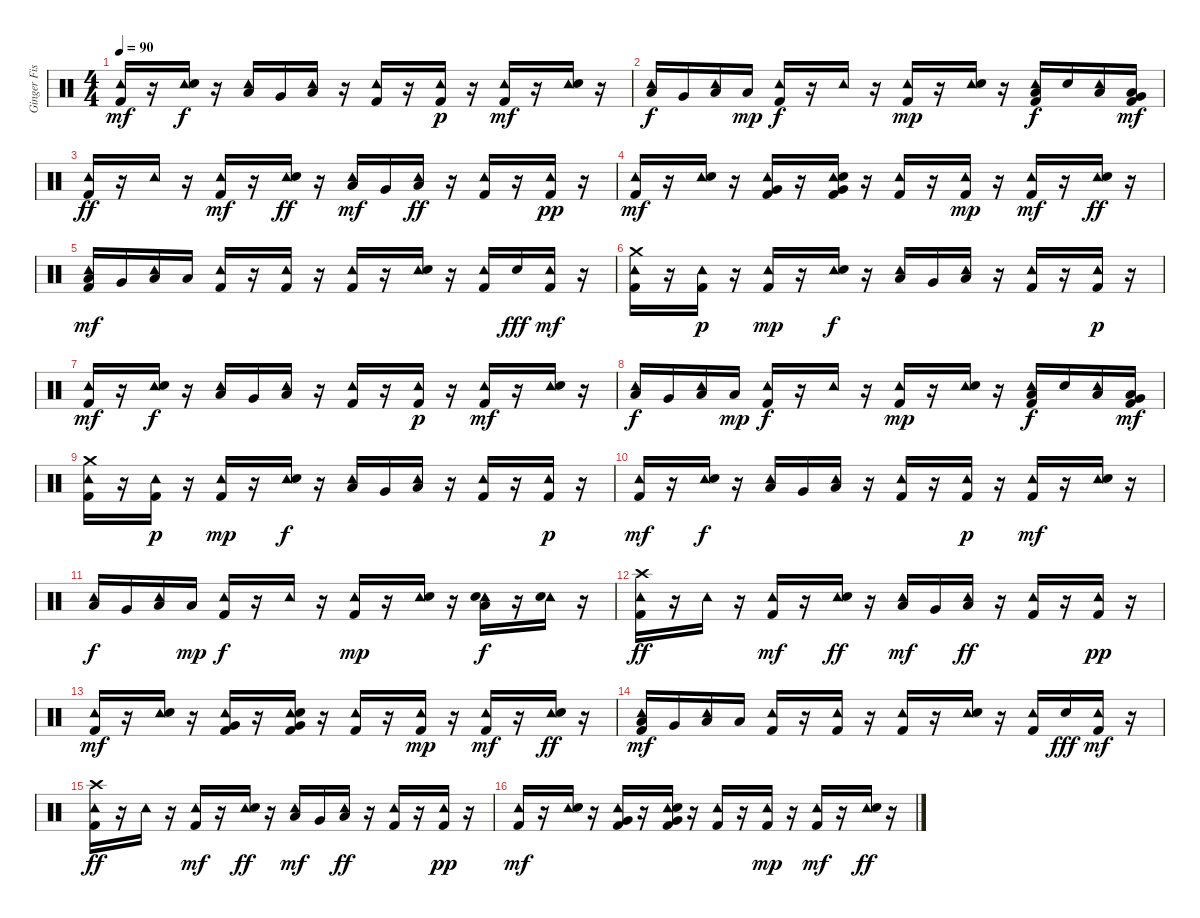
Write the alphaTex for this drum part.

\track ("Ginger Fish" "Ginger Fis") {instrument percussion}
\staff {score}
\articulation defaults
\ts (4 4)
\tempo 90
\clef neutral
\ks c
("Tambourine (hit)" "Kick (hit) 2").16{dy mf} r.16 ("Tambourine (hit)" "Electric Snare (hit)").16{dy f} r.16 ("Tambourine (hit)" "Low Floor Tom (hit)").16 "Very Low Tom (hit)".16 ("Tambourine (hit)" "Low Floor Tom (hit)").16 r.16 ("Tambourine (hit)" "Kick (hit) 2").16 r.16 ("Tambourine (hit)" "Kick (hit) 2").16{dy p} r.16 ("Tambourine (hit)" "Kick (hit) 2").16{dy mf} r.16 ("Tambourine (hit)" "Electric Snare (hit)").16 r.16 |
("Tambourine (hit)" "Low Floor Tom (hit)").16{dy f} "Very Low Tom (hit)".16 ("Tambourine (hit)" "Low Floor Tom (hit)").16 "Low Tom (hit)".16{dy mp} ("Tambourine (hit)" "Kick (hit) 2").16{dy f} r.16 "Tambourine (hit)".16 r.16 ("Tambourine (hit)" "Kick (hit) 2").16{dy mp} r.16 ("Tambourine (hit)" "Electric Snare (hit)").16 r.16 ("Tambourine (hit)" "Kick (hit) 2" "Low Floor Tom (hit)").16{dy f} "Electric Snare (hit)".16 ("Tambourine (hit)" "Low Floor Tom (hit)").16 ("Kick (hit) 2" "Low Tom (hit)" "Very Low Tom (hit)").16{dy mf} |
("Tambourine (hit)" "Kick (hit) 2").16{dy ff} r.16 "Tambourine (hit)".16 r.16 ("Tambourine (hit)" "Kick (hit) 2").16{dy mf} r.16 ("Tambourine (hit)" "Electric Snare (hit)").16{dy ff} r.16 ("Tambourine (hit)" "Low Floor Tom (hit)").16{dy mf} "Very Low Tom (hit)".16 ("Tambourine (hit)" "Low Floor Tom (hit)").16{dy ff} r.16 ("Tambourine (hit)" "Kick (hit) 2").16 r.16 ("Tambourine (hit)" "Kick (hit) 2").16{dy pp} r.16 |
("Tambourine (hit)" "Kick (hit) 2").16{dy mf} r.16 ("Tambourine (hit)" "Electric Snare (hit)").16 r.16 ("Tambourine (hit)" "Very Low Tom (hit)" "Kick (hit) 2").16 r.16 ("Tambourine (hit)" "Very Low Tom (hit)" "Electric Snare (hit)" "Kick (hit) 2").16 r.16 ("Tambourine (hit)" "Kick (hit) 2").16 r.16 ("Tambourine (hit)" "Kick (hit) 2").16{dy mp} r.16 ("Tambourine (hit)" "Kick (hit) 2").16{dy mf} r.16 ("Tambourine (hit)" "Electric Snare (hit)").16{dy ff} r.16 |
("Tambourine (hit)" "Kick (hit) 2" "Low Floor Tom (hit)").16{dy mf} "Very Low Tom (hit)".16 ("Tambourine (hit)" "Low Floor Tom (hit)").16 "Low Tom (hit)".16 ("Tambourine (hit)" "Kick (hit) 2").16 r.16 ("Tambourine (hit)" "Kick (hit) 2").16 r.16 ("Tambourine (hit)" "Kick (hit) 2").16 r.16 ("Tambourine (hit)" "Electric Snare (hit)").16 r.16 ("Tambourine (hit)" "Kick (hit) 2").16 "Electric Snare (hit)".16{dy fff} ("Tambourine (hit)" "Kick (hit) 2").16{dy mf} r.16 |
("Tambourine (hit)" "Crash medium (hit)" "Kick (hit) 2").16 r.16 ("Tambourine (hit)" "Kick (hit) 2").16{dy p} r.16 ("Tambourine (hit)" "Kick (hit) 2").16{dy mp} r.16 ("Tambourine (hit)" "Electric Snare (hit)").16{dy f} r.16 ("Tambourine (hit)" "Low Floor Tom (hit)").16 "Very Low Tom (hit)".16 ("Tambourine (hit)" "Low Floor Tom (hit)").16 r.16 ("Tambourine (hit)" "Kick (hit) 2").16 r.16 ("Tambourine (hit)" "Kick (hit) 2").16{dy p} r.16 |
("Tambourine (hit)" "Kick (hit) 2").16{dy mf} r.16 ("Tambourine (hit)" "Electric Snare (hit)").16{dy f} r.16 ("Tambourine (hit)" "Low Floor Tom (hit)").16 "Very Low Tom (hit)".16 ("Tambourine (hit)" "Low Floor Tom (hit)").16 r.16 ("Tambourine (hit)" "Kick (hit) 2").16 r.16 ("Tambourine (hit)" "Kick (hit) 2").16{dy p} r.16 ("Tambourine (hit)" "Kick (hit) 2").16{dy mf} r.16 ("Tambourine (hit)" "Electric Snare (hit)").16 r.16 |
("Tambourine (hit)" "Low Floor Tom (hit)").16{dy f} "Very Low Tom (hit)".16 ("Tambourine (hit)" "Low Floor Tom (hit)").16 "Low Tom (hit)".16{dy mp} ("Tambourine (hit)" "Kick (hit) 2").16{dy f} r.16 "Tambourine (hit)".16 r.16 ("Tambourine (hit)" "Kick (hit) 2").16{dy mp} r.16 ("Tambourine (hit)" "Electric Snare (hit)").16 r.16 ("Tambourine (hit)" "Kick (hit) 2" "Low Floor Tom (hit)").16{dy f} "Electric Snare (hit)".16 ("Tambourine (hit)" "Low Floor Tom (hit)").16 ("Kick (hit) 2" "Low Tom (hit)" "Very Low Tom (hit)").16{dy mf} |
("Tambourine (hit)" "Crash medium (hit)" "Kick (hit) 2").16 r.16 ("Tambourine (hit)" "Kick (hit) 2").16{dy p} r.16 ("Tambourine (hit)" "Kick (hit) 2").16{dy mp} r.16 ("Tambourine (hit)" "Electric Snare (hit)").16{dy f} r.16 ("Tambourine (hit)" "Low Floor Tom (hit)").16 "Very Low Tom (hit)".16 ("Tambourine (hit)" "Low Floor Tom (hit)").16 r.16 ("Tambourine (hit)" "Kick (hit) 2").16 r.16 ("Tambourine (hit)" "Kick (hit) 2").16{dy p} r.16 |
("Tambourine (hit)" "Kick (hit) 2").16{dy mf} r.16 ("Tambourine (hit)" "Electric Snare (hit)").16{dy f} r.16 ("Tambourine (hit)" "Low Floor Tom (hit)").16 "Very Low Tom (hit)".16 ("Tambourine (hit)" "Low Floor Tom (hit)").16 r.16 ("Tambourine (hit)" "Kick (hit) 2").16 r.16 ("Tambourine (hit)" "Kick (hit) 2").16{dy p} r.16 ("Tambourine (hit)" "Kick (hit) 2").16{dy mf} r.16 ("Tambourine (hit)" "Electric Snare (hit)").16 r.16 |
("Tambourine (hit)" "Low Floor Tom (hit)").16{dy f} "Very Low Tom (hit)".16 ("Tambourine (hit)" "Low Floor Tom (hit)").16 "Low Tom (hit)".16{dy mp} ("Tambourine (hit)" "Kick (hit) 2").16{dy f} r.16 "Tambourine (hit)".16 r.16 ("Tambourine (hit)" "Kick (hit) 2").16{dy mp} r.16 ("Tambourine (hit)" "Electric Snare (hit)").16 r.16 ("Tambourine (hit)" "Electric Snare (hit)" "Low Floor Tom (hit)").16{dy f} r.16 ("Tambourine (hit)" "Electric Snare (hit)").16 r.16 |
("Tambourine (hit)" "Crash high (hit)" "Kick (hit) 2").16{dy ff} r.16 "Tambourine (hit)".16 r.16 ("Tambourine (hit)" "Kick (hit) 2").16{dy mf} r.16 ("Tambourine (hit)" "Electric Snare (hit)").16{dy ff} r.16 ("Tambourine (hit)" "Low Floor Tom (hit)").16{dy mf} "Very Low Tom (hit)".16 ("Tambourine (hit)" "Low Floor Tom (hit)").16{dy ff} r.16 ("Tambourine (hit)" "Kick (hit) 2").16 r.16 ("Tambourine (hit)" "Kick (hit) 2").16{dy pp} r.16 |
("Tambourine (hit)" "Kick (hit) 2").16{dy mf} r.16 ("Tambourine (hit)" "Electric Snare (hit)").16 r.16 ("Tambourine (hit)" "Very Low Tom (hit)" "Kick (hit) 2").16 r.16 ("Tambourine (hit)" "Very Low Tom (hit)" "Electric Snare (hit)" "Kick (hit) 2").16 r.16 ("Tambourine (hit)" "Kick (hit) 2").16 r.16 ("Tambourine (hit)" "Kick (hit) 2").16{dy mp} r.16 ("Tambourine (hit)" "Kick (hit) 2").16{dy mf} r.16 ("Tambourine (hit)" "Electric Snare (hit)").16{dy ff} r.16 |
("Tambourine (hit)" "Kick (hit) 2" "Low Floor Tom (hit)").16{dy mf} "Very Low Tom (hit)".16 ("Tambourine (hit)" "Low Floor Tom (hit)").16 "Low Tom (hit)".16 ("Tambourine (hit)" "Kick (hit) 2").16 r.16 ("Tambourine (hit)" "Kick (hit) 2").16 r.16 ("Tambourine (hit)" "Kick (hit) 2").16 r.16 ("Tambourine (hit)" "Electric Snare (hit)").16 r.16 ("Tambourine (hit)" "Kick (hit) 2").16 "Electric Snare (hit)".16{dy fff} ("Tambourine (hit)" "Kick (hit) 2").16{dy mf} r.16 |
("Tambourine (hit)" "Crash high (hit)" "Kick (hit) 2").16{dy ff} r.16 "Tambourine (hit)".16 r.16 ("Tambourine (hit)" "Kick (hit) 2").16{dy mf} r.16 ("Tambourine (hit)" "Electric Snare (hit)").16{dy ff} r.16 ("Tambourine (hit)" "Low Floor Tom (hit)").16{dy mf} "Very Low Tom (hit)".16 ("Tambourine (hit)" "Low Floor Tom (hit)").16{dy ff} r.16 ("Tambourine (hit)" "Kick (hit) 2").16 r.16 ("Tambourine (hit)" "Kick (hit) 2").16{dy pp} r.16 |
("Tambourine (hit)" "Kick (hit) 2").16{dy mf} r.16 ("Tambourine (hit)" "Electric Snare (hit)").16 r.16 ("Tambourine (hit)" "Very Low Tom (hit)" "Kick (hit) 2").16 r.16 ("Tambourine (hit)" "Very Low Tom (hit)" "Electric Snare (hit)" "Kick (hit) 2").16 r.16 ("Tambourine (hit)" "Kick (hit) 2").16 r.16 ("Tambourine (hit)" "Kick (hit) 2").16{dy mp} r.16 ("Tambourine (hit)" "Kick (hit) 2").16{dy mf} r.16 ("Tambourine (hit)" "Electric Snare (hit)").16{dy ff} r.16
